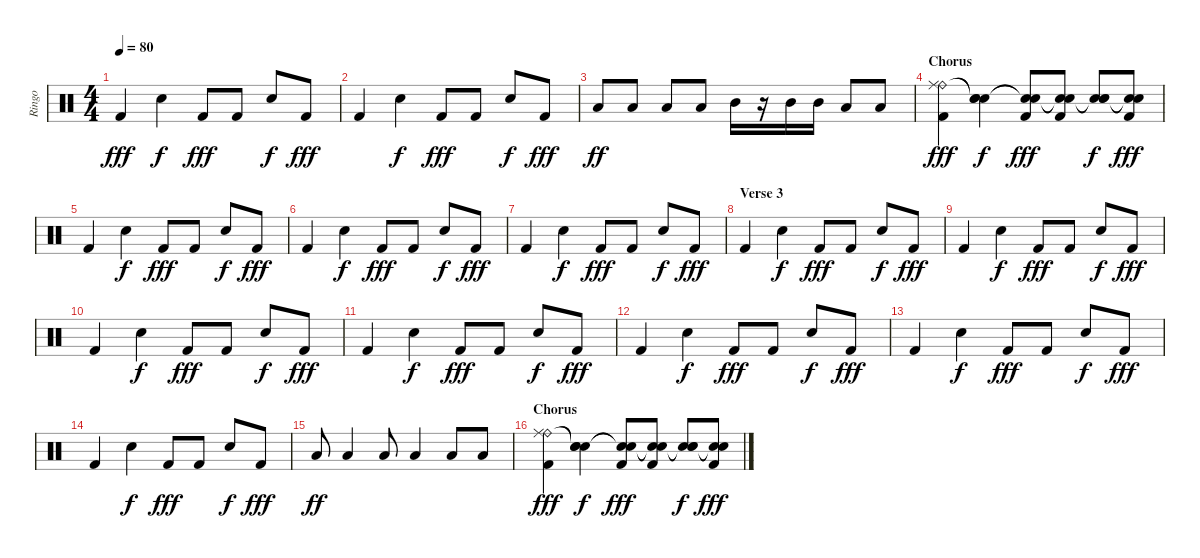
\track ("Ringo" "Ringo") {instrument percussion}
\staff {score}
\articulation defaults
\ts (4 4)
\tempo 80
\clef neutral
\ks c "Kick (hit) 2".4{dy fff} "Snare (hit) 2".4{dy f} "Kick (hit) 2".8{dy fff} "Kick (hit) 2".8 "Snare (hit) 2".8{dy f} "Kick (hit) 2".8{dy fff}
|
"Kick (hit) 2".4 "Snare (hit) 2".4{dy f} "Kick (hit) 2".8{dy fff} "Kick (hit) 2".8 "Snare (hit) 2".8{dy f} "Kick (hit) 2".8{dy fff} |
"Low Floor Tom (hit)".8{dy ff} "Low Floor Tom (hit)".8 "Low Floor Tom (hit)".8 "Low Floor Tom (hit)".8 "Mid Tom (hit)".16 r.16 "Mid Tom (hit)".16 "Mid Tom (hit)".16 "Low Floor Tom (hit)".8 "Low Floor Tom (hit)".8 |
\section ("" "Chorus")
("Ride (bell)" "Ride (middle)" "Kick (hit) 2").4{dy fff} ("Snare (hit)"{t} "Snare (hit)"{t} "Snare (hit) 2").4{dy f} ("Snare (hit)"{t} "Snare (hit)"{t} "Kick (hit) 2").8{dy fff} ("Snare (hit)"{t} "Snare (hit)"{t} "Kick (hit) 2").8 ("Snare (hit)"{t} "Snare (hit)"{t} "Snare (hit) 2").8{dy f} ("Snare (hit)"{t} "Snare (hit)"{t} "Kick (hit) 2").8{dy fff} |
"Kick (hit) 2".4 "Snare (hit) 2".4{dy f} "Kick (hit) 2".8{dy fff} "Kick (hit) 2".8 "Snare (hit) 2".8{dy f} "Kick (hit) 2".8{dy fff} |
"Kick (hit) 2".4 "Snare (hit) 2".4{dy f} "Kick (hit) 2".8{dy fff} "Kick (hit) 2".8 "Snare (hit) 2".8{dy f} "Kick (hit) 2".8{dy fff} |
"Kick (hit) 2".4 "Snare (hit) 2".4{dy f} "Kick (hit) 2".8{dy fff} "Kick (hit) 2".8 "Snare (hit) 2".8{dy f} "Kick (hit) 2".8{dy fff} |
\section ("" "Verse 3")
"Kick (hit) 2".4 "Snare (hit) 2".4{dy f} "Kick (hit) 2".8{dy fff} "Kick (hit) 2".8 "Snare (hit) 2".8{dy f} "Kick (hit) 2".8{dy fff} |
"Kick (hit) 2".4 "Snare (hit) 2".4{dy f} "Kick (hit) 2".8{dy fff} "Kick (hit) 2".8 "Snare (hit) 2".8{dy f} "Kick (hit) 2".8{dy fff} |
"Kick (hit) 2".4 "Snare (hit) 2".4{dy f} "Kick (hit) 2".8{dy fff} "Kick (hit) 2".8 "Snare (hit) 2".8{dy f} "Kick (hit) 2".8{dy fff} |
"Kick (hit) 2".4 "Snare (hit) 2".4{dy f} "Kick (hit) 2".8{dy fff} "Kick (hit) 2".8 "Snare (hit) 2".8{dy f} "Kick (hit) 2".8{dy fff} |
"Kick (hit) 2".4 "Snare (hit) 2".4{dy f} "Kick (hit) 2".8{dy fff} "Kick (hit) 2".8 "Snare (hit) 2".8{dy f} "Kick (hit) 2".8{dy fff} |
"Kick (hit) 2".4 "Snare (hit) 2".4{dy f} "Kick (hit) 2".8{dy fff} "Kick (hit) 2".8 "Snare (hit) 2".8{dy f} "Kick (hit) 2".8{dy fff} |
"Kick (hit) 2".4 "Snare (hit) 2".4{dy f} "Kick (hit) 2".8{dy fff} "Kick (hit) 2".8 "Snare (hit) 2".8{dy f} "Kick (hit) 2".8{dy fff} |
"Low Floor Tom (hit)".8{dy ff} "Low Floor Tom (hit)".4 "Low Floor Tom (hit)".8 "Low Floor Tom (hit)".4 "Low Floor Tom (hit)".8 "Low Floor Tom (hit)".8 |
\section ("" "Chorus")
("Ride (bell)" "Ride (middle)" "Kick (hit) 2").4{dy fff} ("Snare (hit)"{t} "Snare (hit)"{t} "Snare (hit) 2").4{dy f} ("Snare (hit)"{t} "Snare (hit)"{t} "Kick (hit) 2").8{dy fff} ("Snare (hit)"{t} "Snare (hit)"{t} "Kick (hit) 2").8 ("Snare (hit)"{t} "Snare (hit)"{t} "Snare (hit) 2").8{dy f} ("Snare (hit)"{t} "Snare (hit)"{t} "Kick (hit) 2").8{dy fff}
